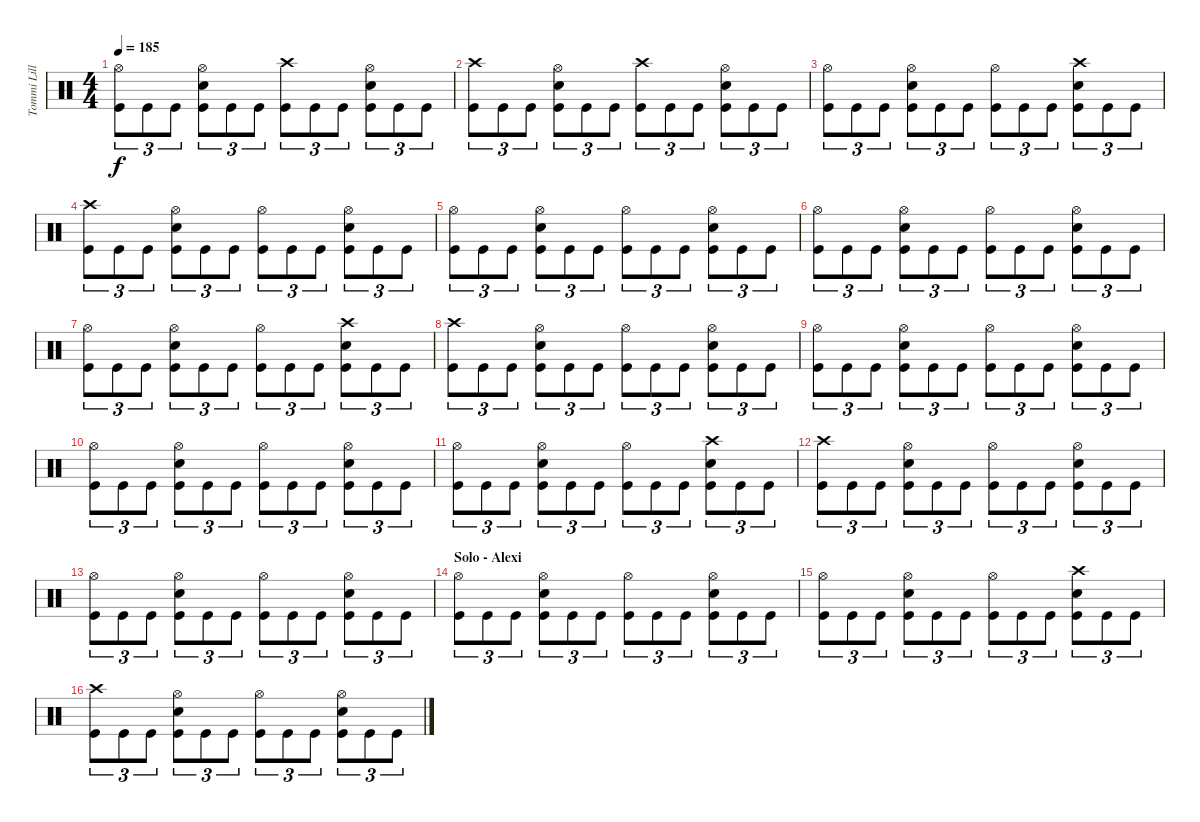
\track ("Tommi Lillman" "Tommi Lill") {instrument percussion}
\staff {score}
\articulation defaults
\ts (4 4)
\tempo 185
\clef neutral
\ks c
("Hi-Hat (open)" "Kick (hit)").8{tu (3 2) dy f} "Kick (hit)".8{tu (3 2)} "Kick (hit)".8{tu (3 2)} ("Hi-Hat (open)" "Snare (hit) 2" "Kick (hit)").8{tu (3 2)} "Kick (hit)".8{tu (3 2)} "Kick (hit)".8{tu (3 2)} ("Crash high (hit)" "Kick (hit)").8{tu (3 2)} "Kick (hit)".8{tu (3 2)} "Kick (hit)".8{tu (3 2)} ("Hi-Hat (open)" "Snare (hit) 2" "Kick (hit)").8{tu (3 2)} "Kick (hit)".8{tu (3 2)} "Kick (hit)".8{tu (3 2)} |
("Crash high (hit)" "Kick (hit)").8{tu (3 2)} "Kick (hit)".8{tu (3 2)} "Kick (hit)".8{tu (3 2)} ("Hi-Hat (open)" "Snare (hit) 2" "Kick (hit)").8{tu (3 2)} "Kick (hit)".8{tu (3 2)} "Kick (hit)".8{tu (3 2)} ("Crash high (hit)" "Kick (hit)").8{tu (3 2)} "Kick (hit)".8{tu (3 2)} "Kick (hit)".8{tu (3 2)} ("Hi-Hat (open)" "Snare (hit) 2" "Kick (hit)").8{tu (3 2)} "Kick (hit)".8{tu (3 2)} "Kick (hit)".8{tu (3 2)} |
("Hi-Hat (open)" "Kick (hit)").8{tu (3 2)} "Kick (hit)".8{tu (3 2)} "Kick (hit)".8{tu (3 2)} ("Hi-Hat (open)" "Snare (hit) 2" "Kick (hit)").8{tu (3 2)} "Kick (hit)".8{tu (3 2)} "Kick (hit)".8{tu (3 2)} ("Hi-Hat (open)" "Kick (hit)").8{tu (3 2)} "Kick (hit)".8{tu (3 2)} "Kick (hit)".8{tu (3 2)} ("Crash high (hit)" "Snare (hit) 2" "Kick (hit)").8{tu (3 2)} "Kick (hit)".8{tu (3 2)} "Kick (hit)".8{tu (3 2)} |
("Crash high (hit)" "Kick (hit)").8{tu (3 2)} "Kick (hit)".8{tu (3 2)} "Kick (hit)".8{tu (3 2)} ("Hi-Hat (open)" "Snare (hit) 2" "Kick (hit)").8{tu (3 2)} "Kick (hit)".8{tu (3 2)} "Kick (hit)".8{tu (3 2)} ("Hi-Hat (open)" "Kick (hit)").8{tu (3 2)} "Kick (hit)".8{tu (3 2)} "Kick (hit)".8{tu (3 2)} ("Hi-Hat (open)" "Snare (hit) 2" "Kick (hit)").8{tu (3 2)} "Kick (hit)".8{tu (3 2)} "Kick (hit)".8{tu (3 2)} |
("Hi-Hat (open)" "Kick (hit)").8{tu (3 2)} "Kick (hit)".8{tu (3 2)} "Kick (hit)".8{tu (3 2)} ("Hi-Hat (open)" "Snare (hit) 2" "Kick (hit)").8{tu (3 2)} "Kick (hit)".8{tu (3 2)} "Kick (hit)".8{tu (3 2)} ("Hi-Hat (open)" "Kick (hit)").8{tu (3 2)} "Kick (hit)".8{tu (3 2)} "Kick (hit)".8{tu (3 2)} ("Hi-Hat (open)" "Snare (hit) 2" "Kick (hit)").8{tu (3 2)} "Kick (hit)".8{tu (3 2)} "Kick (hit)".8{tu (3 2)} |
("Hi-Hat (open)" "Kick (hit)").8{tu (3 2)} "Kick (hit)".8{tu (3 2)} "Kick (hit)".8{tu (3 2)} ("Hi-Hat (open)" "Snare (hit) 2" "Kick (hit)").8{tu (3 2)} "Kick (hit)".8{tu (3 2)} "Kick (hit)".8{tu (3 2)} ("Hi-Hat (open)" "Kick (hit)").8{tu (3 2)} "Kick (hit)".8{tu (3 2)} "Kick (hit)".8{tu (3 2)} ("Hi-Hat (open)" "Snare (hit) 2" "Kick (hit)").8{tu (3 2)} "Kick (hit)".8{tu (3 2)} "Kick (hit)".8{tu (3 2)} |
("Hi-Hat (open)" "Kick (hit)").8{tu (3 2)} "Kick (hit)".8{tu (3 2)} "Kick (hit)".8{tu (3 2)} ("Hi-Hat (open)" "Snare (hit) 2" "Kick (hit)").8{tu (3 2)} "Kick (hit)".8{tu (3 2)} "Kick (hit)".8{tu (3 2)} ("Hi-Hat (open)" "Kick (hit)").8{tu (3 2)} "Kick (hit)".8{tu (3 2)} "Kick (hit)".8{tu (3 2)} ("Crash high (hit)" "Snare (hit) 2" "Kick (hit)").8{tu (3 2)} "Kick (hit)".8{tu (3 2)} "Kick (hit)".8{tu (3 2)} |
("Crash high (hit)" "Kick (hit)").8{tu (3 2)} "Kick (hit)".8{tu (3 2)} "Kick (hit)".8{tu (3 2)} ("Hi-Hat (open)" "Snare (hit) 2" "Kick (hit)").8{tu (3 2)} "Kick (hit)".8{tu (3 2)} "Kick (hit)".8{tu (3 2)} ("Hi-Hat (open)" "Kick (hit)").8{tu (3 2)} "Kick (hit)".8{tu (3 2)} "Kick (hit)".8{tu (3 2)} ("Hi-Hat (open)" "Snare (hit) 2" "Kick (hit)").8{tu (3 2)} "Kick (hit)".8{tu (3 2)} "Kick (hit)".8{tu (3 2)} |
("Hi-Hat (open)" "Kick (hit)").8{tu (3 2)} "Kick (hit)".8{tu (3 2)} "Kick (hit)".8{tu (3 2)} ("Hi-Hat (open)" "Snare (hit) 2" "Kick (hit)").8{tu (3 2)} "Kick (hit)".8{tu (3 2)} "Kick (hit)".8{tu (3 2)} ("Hi-Hat (open)" "Kick (hit)").8{tu (3 2)} "Kick (hit)".8{tu (3 2)} "Kick (hit)".8{tu (3 2)} ("Hi-Hat (open)" "Snare (hit) 2" "Kick (hit)").8{tu (3 2)} "Kick (hit)".8{tu (3 2)} "Kick (hit)".8{tu (3 2)} |
("Hi-Hat (open)" "Kick (hit)").8{tu (3 2)} "Kick (hit)".8{tu (3 2)} "Kick (hit)".8{tu (3 2)} ("Hi-Hat (open)" "Snare (hit) 2" "Kick (hit)").8{tu (3 2)} "Kick (hit)".8{tu (3 2)} "Kick (hit)".8{tu (3 2)} ("Hi-Hat (open)" "Kick (hit)").8{tu (3 2)} "Kick (hit)".8{tu (3 2)} "Kick (hit)".8{tu (3 2)} ("Hi-Hat (open)" "Snare (hit) 2" "Kick (hit)").8{tu (3 2)} "Kick (hit)".8{tu (3 2)} "Kick (hit)".8{tu (3 2)} |
("Hi-Hat (open)" "Kick (hit)").8{tu (3 2)} "Kick (hit)".8{tu (3 2)} "Kick (hit)".8{tu (3 2)} ("Hi-Hat (open)" "Snare (hit) 2" "Kick (hit)").8{tu (3 2)} "Kick (hit)".8{tu (3 2)} "Kick (hit)".8{tu (3 2)} ("Hi-Hat (open)" "Kick (hit)").8{tu (3 2)} "Kick (hit)".8{tu (3 2)} "Kick (hit)".8{tu (3 2)} ("Crash high (hit)" "Snare (hit) 2" "Kick (hit)").8{tu (3 2)} "Kick (hit)".8{tu (3 2)} "Kick (hit)".8{tu (3 2)} |
("Crash high (hit)" "Kick (hit)").8{tu (3 2)} "Kick (hit)".8{tu (3 2)} "Kick (hit)".8{tu (3 2)} ("Hi-Hat (open)" "Snare (hit) 2" "Kick (hit)").8{tu (3 2)} "Kick (hit)".8{tu (3 2)} "Kick (hit)".8{tu (3 2)} ("Hi-Hat (open)" "Kick (hit)").8{tu (3 2)} "Kick (hit)".8{tu (3 2)} "Kick (hit)".8{tu (3 2)} ("Hi-Hat (open)" "Snare (hit) 2" "Kick (hit)").8{tu (3 2)} "Kick (hit)".8{tu (3 2)} "Kick (hit)".8{tu (3 2)} |
("Hi-Hat (open)" "Kick (hit)").8{tu (3 2)} "Kick (hit)".8{tu (3 2)} "Kick (hit)".8{tu (3 2)} ("Hi-Hat (open)" "Snare (hit) 2" "Kick (hit)").8{tu (3 2)} "Kick (hit)".8{tu (3 2)} "Kick (hit)".8{tu (3 2)} ("Hi-Hat (open)" "Kick (hit)").8{tu (3 2)} "Kick (hit)".8{tu (3 2)} "Kick (hit)".8{tu (3 2)} ("Hi-Hat (open)" "Snare (hit) 2" "Kick (hit)").8{tu (3 2)} "Kick (hit)".8{tu (3 2)} "Kick (hit)".8{tu (3 2)} |
\section ("" "Solo - Alexi")
("Hi-Hat (open)" "Kick (hit)").8{tu (3 2)} "Kick (hit)".8{tu (3 2)} "Kick (hit)".8{tu (3 2)} ("Hi-Hat (open)" "Snare (hit) 2" "Kick (hit)").8{tu (3 2)} "Kick (hit)".8{tu (3 2)} "Kick (hit)".8{tu (3 2)} ("Hi-Hat (open)" "Kick (hit)").8{tu (3 2)} "Kick (hit)".8{tu (3 2)} "Kick (hit)".8{tu (3 2)} ("Hi-Hat (open)" "Snare (hit) 2" "Kick (hit)").8{tu (3 2)} "Kick (hit)".8{tu (3 2)} "Kick (hit)".8{tu (3 2)} |
("Hi-Hat (open)" "Kick (hit)").8{tu (3 2)} "Kick (hit)".8{tu (3 2)} "Kick (hit)".8{tu (3 2)} ("Hi-Hat (open)" "Snare (hit) 2" "Kick (hit)").8{tu (3 2)} "Kick (hit)".8{tu (3 2)} "Kick (hit)".8{tu (3 2)} ("Hi-Hat (open)" "Kick (hit)").8{tu (3 2)} "Kick (hit)".8{tu (3 2)} "Kick (hit)".8{tu (3 2)} ("Crash high (hit)" "Snare (hit) 2" "Kick (hit)").8{tu (3 2)} "Kick (hit)".8{tu (3 2)} "Kick (hit)".8{tu (3 2)} |
("Crash high (hit)" "Kick (hit)").8{tu (3 2)} "Kick (hit)".8{tu (3 2)} "Kick (hit)".8{tu (3 2)} ("Hi-Hat (open)" "Snare (hit) 2" "Kick (hit)").8{tu (3 2)} "Kick (hit)".8{tu (3 2)} "Kick (hit)".8{tu (3 2)} ("Hi-Hat (open)" "Kick (hit)").8{tu (3 2)} "Kick (hit)".8{tu (3 2)} "Kick (hit)".8{tu (3 2)} ("Hi-Hat (open)" "Snare (hit) 2" "Kick (hit)").8{tu (3 2)} "Kick (hit)".8{tu (3 2)} "Kick (hit)".8{tu (3 2)}
